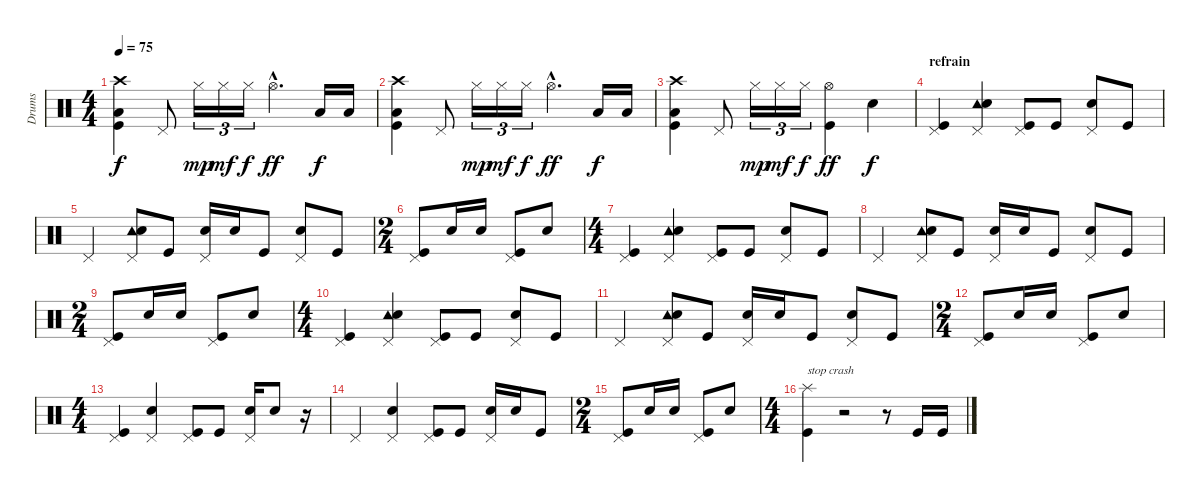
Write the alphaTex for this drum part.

\track ("Drums" "Drums") {instrument percussion}
\staff {score}
\articulation defaults
\ts (4 4)
\tempo 75
\clef neutral
\ks aminor
("Crash high (hit)" "Low Floor Tom (hit)" "Kick (hit)").4{dy f} "Pedal Hi-Hat (hit)".8 "Hi-Hat (closed)".16{tu (3 2) dy mp} "Hi-Hat (closed)".16{tu (3 2) dy mf} "Hi-Hat (closed)".16{tu (3 2) dy f} "Hi-Hat (open)"{hac}.4{d dy ff} "Low Floor Tom (hit)".16{dy f} "Low Floor Tom (hit)".16 |
("Crash high (hit)" "Low Floor Tom (hit)" "Kick (hit)").4 "Pedal Hi-Hat (hit)".8 "Hi-Hat (closed)".16{tu (3 2) dy mp} "Hi-Hat (closed)".16{tu (3 2) dy mf} "Hi-Hat (closed)".16{tu (3 2) dy f} "Hi-Hat (open)"{hac}.4{d dy ff} "Low Floor Tom (hit)".16{dy f} "Low Floor Tom (hit)".16 |
("Crash high (hit)" "Low Floor Tom (hit)" "Kick (hit)").4 "Pedal Hi-Hat (hit)".8 "Hi-Hat (closed)".16{tu (3 2) dy mp} "Hi-Hat (closed)".16{tu (3 2) dy mf} "Hi-Hat (closed)".16{tu (3 2) dy f} ("Hi-Hat (open)" "Kick (hit)").4{dy ff} "Snare (hit) 2".4{dy f} |
\section ("" "refrain")
("Pedal Hi-Hat (hit)" "Kick (hit)").4 ("Pedal Hi-Hat (hit)" "Tambourine (hit)" "Snare (hit) 2").4 ("Pedal Hi-Hat (hit)" "Kick (hit)").8 "Kick (hit)".8 ("Pedal Hi-Hat (hit)" "Snare (hit) 2").8 "Kick (hit)".8 |
"Pedal Hi-Hat (hit)".4 ("Pedal Hi-Hat (hit)" "Tambourine (hit)" "Snare (hit) 2").8 "Kick (hit)".8 ("Pedal Hi-Hat (hit)" "Snare (hit) 2").16 "Snare (hit) 2".16 "Kick (hit)".8 ("Pedal Hi-Hat (hit)" "Snare (hit) 2").8 "Kick (hit)".8 |
\ts (2 4)
("Pedal Hi-Hat (hit)" "Kick (hit)").8 "Snare (hit) 2".16 "Snare (hit) 2".16 ("Pedal Hi-Hat (hit)" "Kick (hit)").8 "Snare (hit) 2".8 |
\ts (4 4)
("Pedal Hi-Hat (hit)" "Kick (hit)").4 ("Pedal Hi-Hat (hit)" "Tambourine (hit)" "Snare (hit) 2").4 ("Pedal Hi-Hat (hit)" "Kick (hit)").8 "Kick (hit)".8 ("Pedal Hi-Hat (hit)" "Snare (hit) 2").8 "Kick (hit)".8 |
"Pedal Hi-Hat (hit)".4 ("Pedal Hi-Hat (hit)" "Tambourine (hit)" "Snare (hit) 2").8 "Kick (hit)".8 ("Pedal Hi-Hat (hit)" "Snare (hit) 2").16 "Snare (hit) 2".16 "Kick (hit)".8 ("Pedal Hi-Hat (hit)" "Snare (hit) 2").8 "Kick (hit)".8 |
\ts (2 4)
("Pedal Hi-Hat (hit)" "Kick (hit)").8 "Snare (hit) 2".16 "Snare (hit) 2".16 ("Pedal Hi-Hat (hit)" "Kick (hit)").8 "Snare (hit) 2".8 |
\ts (4 4)
("Pedal Hi-Hat (hit)" "Kick (hit)").4 ("Pedal Hi-Hat (hit)" "Tambourine (hit)" "Snare (hit) 2").4 ("Pedal Hi-Hat (hit)" "Kick (hit)").8 "Kick (hit)".8 ("Pedal Hi-Hat (hit)" "Snare (hit) 2").8 "Kick (hit)".8 |
"Pedal Hi-Hat (hit)".4 ("Pedal Hi-Hat (hit)" "Tambourine (hit)" "Snare (hit) 2").8 "Kick (hit)".8 ("Pedal Hi-Hat (hit)" "Snare (hit) 2").16 "Snare (hit) 2".16 "Kick (hit)".8 ("Pedal Hi-Hat (hit)" "Snare (hit) 2").8 "Kick (hit)".8 |
\ts (2 4)
("Pedal Hi-Hat (hit)" "Kick (hit)").8 "Snare (hit) 2".16 "Snare (hit) 2".16 ("Pedal Hi-Hat (hit)" "Kick (hit)").8 "Snare (hit) 2".8 |
\ts (4 4)
("Pedal Hi-Hat (hit)" "Kick (hit)").4 ("Pedal Hi-Hat (hit)" "Snare (hit) 2").4 ("Pedal Hi-Hat (hit)" "Kick (hit)").8 "Kick (hit)".8 ("Pedal Hi-Hat (hit)" "Snare (hit) 2").16 "Snare (hit) 2".8 r.16 |
"Pedal Hi-Hat (hit)".4 ("Pedal Hi-Hat (hit)" "Snare (hit) 2").4 ("Pedal Hi-Hat (hit)" "Kick (hit)").8 "Kick (hit)".8 ("Pedal Hi-Hat (hit)" "Snare (hit) 2").16 "Snare (hit) 2".16 "Kick (hit)".8 |
\ts (2 4)
("Pedal Hi-Hat (hit)" "Kick (hit)").8 "Snare (hit) 2".16 "Snare (hit) 2".16 ("Pedal Hi-Hat (hit)" "Kick (hit)").8 "Snare (hit) 2".8 |
\ts (4 4)
("Splash (hit)" "Kick (hit)").4{txt "stop crash"} r.2 r.8 "Kick (hit)".16 "Kick (hit)".16
